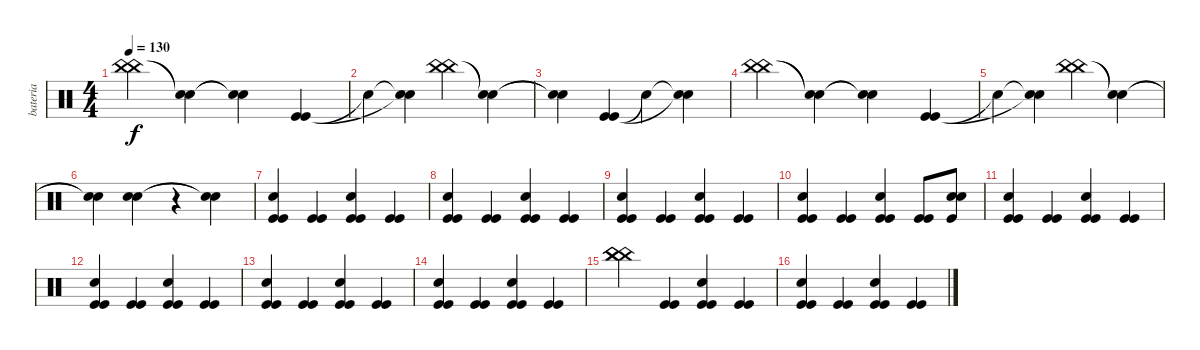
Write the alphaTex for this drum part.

\track ("bateria" "bateria") {instrument percussion}
\staff {score}
\articulation defaults
\ts (4 4)
\tempo 130
\clef neutral
\ks c
("China (hit)" "China (hit)").4{dy f} ("Snare (hit)"{t} "Snare (hit)"{t}).4 ("Snare (hit)"{t} "Snare (hit)"{t}).4 ("Kick (hit)" "Kick (hit)").4 |
"Snare (hit)"{t}.4 ("Snare (hit)"{t} "Snare (hit)"{t}).4 ("China (hit)" "China (hit)").4 ("Snare (hit)"{t} "Snare (hit)"{t}).4 |
("Snare (hit)"{t} "Snare (hit)"{t}).4 ("Kick (hit)" "Kick (hit)").4 "Snare (hit)"{t}.4 ("Snare (hit)"{t} "Snare (hit)"{t}).4 |
("China (hit)" "China (hit)").4 ("Snare (hit)"{t} "Snare (hit)"{t}).4 ("Snare (hit)"{t} "Snare (hit)"{t}).4 ("Kick (hit)" "Kick (hit)").4 |
"Snare (hit)"{t}.4 ("Snare (hit)"{t} "Snare (hit)"{t}).4 ("China (hit)" "China (hit)").4 ("Snare (hit)"{t} "Snare (hit)"{t}).4 |
("Snare (hit)"{t} "Snare (hit)"{t}).4 ("Snare (hit) 2" "Snare (hit) 2").4 r.4 ("Snare (hit)"{t} "Snare (hit)"{t}).4 |
("Kick (hit)" "Snare (hit) 2" "Kick (hit)").4 ("Kick (hit)" "Kick (hit)").4 ("Kick (hit)" "Snare (hit) 2" "Kick (hit)").4 ("Kick (hit)" "Kick (hit)").4 |
("Kick (hit)" "Snare (hit) 2" "Kick (hit)").4 ("Kick (hit)" "Kick (hit)").4 ("Kick (hit)" "Snare (hit) 2" "Kick (hit)").4 ("Kick (hit)" "Kick (hit)").4 |
("Kick (hit)" "Snare (hit) 2" "Kick (hit)").4 ("Kick (hit)" "Kick (hit)").4 ("Kick (hit)" "Snare (hit) 2" "Kick (hit)").4 ("Kick (hit)" "Kick (hit)").4 |
("Kick (hit)" "Snare (hit) 2" "Kick (hit)").4 ("Kick (hit)" "Kick (hit)").4 ("Kick (hit)" "Snare (hit) 2" "Kick (hit)").4 ("Kick (hit)" "Kick (hit)").8 ("Snare (hit) 2" "Snare (hit) 2" "Kick (hit)").8 |
("Kick (hit)" "Snare (hit) 2" "Kick (hit)").4 ("Kick (hit)" "Kick (hit)").4 ("Kick (hit)" "Snare (hit) 2" "Kick (hit)").4 ("Kick (hit)" "Kick (hit)").4 |
("Kick (hit)" "Snare (hit) 2" "Kick (hit)").4 ("Kick (hit)" "Kick (hit)").4 ("Kick (hit)" "Snare (hit) 2" "Kick (hit)").4 ("Kick (hit)" "Kick (hit)").4 |
("Kick (hit)" "Snare (hit) 2" "Kick (hit)").4 ("Kick (hit)" "Kick (hit)").4 ("Kick (hit)" "Snare (hit) 2" "Kick (hit)").4 ("Kick (hit)" "Kick (hit)").4 |
("Kick (hit)" "Snare (hit) 2" "Kick (hit)").4 ("Kick (hit)" "Kick (hit)").4 ("Kick (hit)" "Snare (hit) 2" "Kick (hit)").4 ("Kick (hit)" "Kick (hit)").4 |
("China (hit)" "China (hit)" "China (hit)").4 ("Kick (hit)" "Kick (hit)").4 ("Kick (hit)" "Snare (hit) 2" "Kick (hit)").4 ("Kick (hit)" "Kick (hit)").4 |
("Kick (hit)" "Snare (hit) 2" "Kick (hit)").4 ("Kick (hit)" "Kick (hit)").4 ("Kick (hit)" "Snare (hit) 2" "Kick (hit)").4 ("Kick (hit)" "Kick (hit)").4
